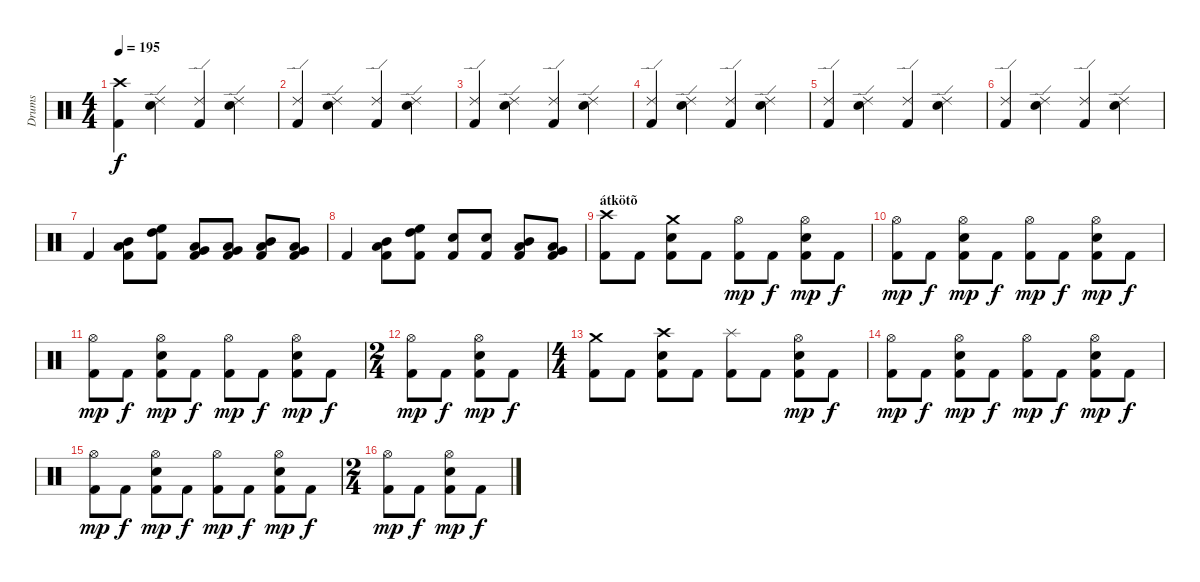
\track ("Drums" "Drums") {instrument percussion}
\staff {score}
\articulation defaults
\ts (4 4)
\tempo 195
\clef neutral
\ks c
("Crash high (hit)" "Kick (hit) 2").4{dy f} ("Ride (edge) 2" "Snare (hit) 2").4 ("Ride (edge) 2" "Kick (hit) 2").4 ("Ride (edge) 2" "Snare (hit) 2").4 |
("Ride (edge) 2" "Kick (hit) 2").4 ("Ride (edge) 2" "Snare (hit) 2").4 ("Ride (edge) 2" "Kick (hit) 2").4 ("Ride (edge) 2" "Snare (hit) 2").4 |
("Ride (edge) 2" "Kick (hit) 2").4 ("Ride (edge) 2" "Snare (hit) 2").4 ("Ride (edge) 2" "Kick (hit) 2").4 ("Ride (edge) 2" "Snare (hit) 2").4 |
("Ride (edge) 2" "Kick (hit) 2").4 ("Ride (edge) 2" "Snare (hit) 2").4 ("Ride (edge) 2" "Kick (hit) 2").4 ("Ride (edge) 2" "Snare (hit) 2").4 |
("Ride (edge) 2" "Kick (hit) 2").4 ("Ride (edge) 2" "Snare (hit) 2").4 ("Ride (edge) 2" "Kick (hit) 2").4 ("Ride (edge) 2" "Snare (hit) 2").4 |
("Ride (edge) 2" "Kick (hit) 2").4 ("Ride (edge) 2" "Snare (hit) 2").4 ("Ride (edge) 2" "Kick (hit) 2").4 ("Ride (edge) 2" "Snare (hit) 2").4 |
"Kick (hit) 2".4 ("Mid Tom (hit)" "Low Tom (hit)" "Kick (hit) 2").8 ("High Tom (hit)" "High Floor Tom (hit)" "Kick (hit) 2").8 ("Low Tom (hit)" "Very Low Tom (hit)" "Kick (hit) 2").8 ("Low Tom (hit)" "Very Low Tom (hit)" "Kick (hit) 2").8 ("Mid Tom (hit)" "Low Tom (hit)" "Kick (hit) 2").8 ("Low Tom (hit)" "Very Low Tom (hit)" "Kick (hit) 2").8 |
"Kick (hit) 2".4 ("Mid Tom (hit)" "Low Tom (hit)" "Kick (hit) 2").8 ("High Tom (hit)" "High Floor Tom (hit)" "Kick (hit) 2").8 ("Snare (hit) 2" "Kick (hit) 2").8 ("Snare (hit) 2" "Kick (hit) 2").8 ("Mid Tom (hit)" "Low Tom (hit)" "Kick (hit) 2").8 ("Low Tom (hit)" "Very Low Tom (hit)" "Kick (hit) 2").8 |
\section ("" "átkötõ")
("Crash high (hit)" "Kick (hit) 2").8 "Kick (hit) 2".8 ("Crash medium (hit)" "Snare (hit) 2" "Kick (hit) 2").8 "Kick (hit) 2".8 ("Hi-Hat (open)" "Kick (hit) 2").8{dy mp} "Kick (hit) 2".8{dy f} ("Hi-Hat (open)" "Snare (hit) 2" "Kick (hit) 2").8{dy mp} "Kick (hit) 2".8{dy f} |
("Hi-Hat (open)" "Kick (hit) 2").8{dy mp} "Kick (hit) 2".8{dy f} ("Hi-Hat (open)" "Snare (hit) 2" "Kick (hit) 2").8{dy mp} "Kick (hit) 2".8{dy f} ("Hi-Hat (open)" "Kick (hit) 2").8{dy mp} "Kick (hit) 2".8{dy f} ("Hi-Hat (open)" "Snare (hit) 2" "Kick (hit) 2").8{dy mp} "Kick (hit) 2".8{dy f} |
("Hi-Hat (open)" "Kick (hit) 2").8{dy mp} "Kick (hit) 2".8{dy f} ("Hi-Hat (open)" "Snare (hit) 2" "Kick (hit) 2").8{dy mp} "Kick (hit) 2".8{dy f} ("Hi-Hat (open)" "Kick (hit) 2").8{dy mp} "Kick (hit) 2".8{dy f} ("Hi-Hat (open)" "Snare (hit) 2" "Kick (hit) 2").8{dy mp} "Kick (hit) 2".8{dy f} |
\ts (2 4)
("Hi-Hat (open)" "Kick (hit) 2").8{dy mp} "Kick (hit) 2".8{dy f} ("Hi-Hat (open)" "Snare (hit) 2" "Kick (hit) 2").8{dy mp} "Kick (hit) 2".8{dy f} |
\ts (4 4)
("Crash medium (hit)" "Kick (hit) 2").8 "Kick (hit) 2".8 ("Crash high (hit)" "Snare (hit) 2" "Kick (hit) 2").8 "Kick (hit) 2".8 ("Splash (hit)" "Kick (hit) 2").8 "Kick (hit) 2".8 ("Hi-Hat (open)" "Snare (hit) 2" "Kick (hit) 2").8{dy mp} "Kick (hit) 2".8{dy f} |
("Hi-Hat (open)" "Kick (hit) 2").8{dy mp} "Kick (hit) 2".8{dy f} ("Hi-Hat (open)" "Snare (hit) 2" "Kick (hit) 2").8{dy mp} "Kick (hit) 2".8{dy f} ("Hi-Hat (open)" "Kick (hit) 2").8{dy mp} "Kick (hit) 2".8{dy f} ("Hi-Hat (open)" "Snare (hit) 2" "Kick (hit) 2").8{dy mp} "Kick (hit) 2".8{dy f} |
("Hi-Hat (open)" "Kick (hit) 2").8{dy mp} "Kick (hit) 2".8{dy f} ("Hi-Hat (open)" "Snare (hit) 2" "Kick (hit) 2").8{dy mp} "Kick (hit) 2".8{dy f} ("Hi-Hat (open)" "Kick (hit) 2").8{dy mp} "Kick (hit) 2".8{dy f} ("Hi-Hat (open)" "Snare (hit) 2" "Kick (hit) 2").8{dy mp} "Kick (hit) 2".8{dy f} |
\ts (2 4)
("Hi-Hat (open)" "Kick (hit) 2").8{dy mp} "Kick (hit) 2".8{dy f} ("Hi-Hat (open)" "Snare (hit) 2" "Kick (hit) 2").8{dy mp} "Kick (hit) 2".8{dy f}
